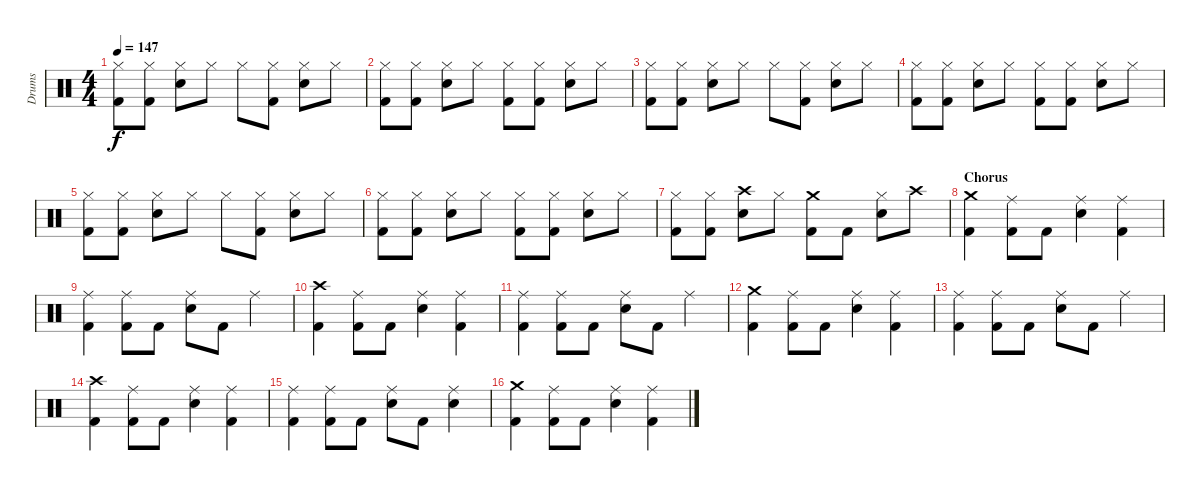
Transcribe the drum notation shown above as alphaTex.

\track ("Drums" "Drums") {instrument percussion}
\staff {score}
\articulation defaults
\ts (4 4)
\tempo 147
\clef neutral
\ks c
("Hi-Hat (closed)" "Kick (hit) 2").8{dy f} ("Hi-Hat (closed)" "Kick (hit) 2").8 ("Hi-Hat (closed)" "Snare (hit) 2").8 "Hi-Hat (closed)".8 "Hi-Hat (closed)".8 ("Hi-Hat (closed)" "Kick (hit) 2").8 ("Hi-Hat (closed)" "Snare (hit) 2").8 "Hi-Hat (closed)".8 |
("Hi-Hat (closed)" "Kick (hit) 2").8 ("Hi-Hat (closed)" "Kick (hit) 2").8 ("Hi-Hat (closed)" "Snare (hit) 2").8 "Hi-Hat (closed)".8 ("Hi-Hat (closed)" "Kick (hit) 2").8 ("Hi-Hat (closed)" "Kick (hit) 2").8 ("Hi-Hat (closed)" "Snare (hit) 2").8 "Hi-Hat (closed)".8 |
("Hi-Hat (closed)" "Kick (hit) 2").8 ("Hi-Hat (closed)" "Kick (hit) 2").8 ("Hi-Hat (closed)" "Snare (hit) 2").8 "Hi-Hat (closed)".8 "Hi-Hat (closed)".8 ("Hi-Hat (closed)" "Kick (hit) 2").8 ("Hi-Hat (closed)" "Snare (hit) 2").8 "Hi-Hat (closed)".8 |
("Hi-Hat (closed)" "Kick (hit) 2").8 ("Hi-Hat (closed)" "Kick (hit) 2").8 ("Hi-Hat (closed)" "Snare (hit) 2").8 "Hi-Hat (closed)".8 ("Hi-Hat (closed)" "Kick (hit) 2").8 ("Hi-Hat (closed)" "Kick (hit) 2").8 ("Hi-Hat (closed)" "Snare (hit) 2").8 "Hi-Hat (closed)".8 |
("Hi-Hat (closed)" "Kick (hit) 2").8 ("Hi-Hat (closed)" "Kick (hit) 2").8 ("Hi-Hat (closed)" "Snare (hit) 2").8 "Hi-Hat (closed)".8 "Hi-Hat (closed)".8 ("Hi-Hat (closed)" "Kick (hit) 2").8 ("Hi-Hat (closed)" "Snare (hit) 2").8 "Hi-Hat (closed)".8 |
("Hi-Hat (closed)" "Kick (hit) 2").8 ("Hi-Hat (closed)" "Kick (hit) 2").8 ("Hi-Hat (closed)" "Snare (hit) 2").8 "Hi-Hat (closed)".8 ("Hi-Hat (closed)" "Kick (hit) 2").8 ("Hi-Hat (closed)" "Kick (hit) 2").8 ("Hi-Hat (closed)" "Snare (hit) 2").8 "Hi-Hat (closed)".8 |
("Hi-Hat (closed)" "Kick (hit) 2").8 ("Hi-Hat (closed)" "Kick (hit) 2").8 ("Crash high (hit)" "Snare (hit) 2").8 "Hi-Hat (closed)".8 ("Crash medium (hit)" "Kick (hit) 2").8 "Kick (hit) 2".8 ("Hi-Hat (closed)" "Snare (hit) 2").8 "Crash high (hit)".8 |
\section ("" "Chorus")
("Crash medium (hit)" "Kick (hit) 2").4 ("Ride (middle)" "Kick (hit) 2").8 "Kick (hit) 2".8 ("Ride (middle)" "Snare (hit) 2").4 ("Ride (middle)" "Kick (hit) 2").4 |
("Ride (middle)" "Kick (hit) 2").4 ("Ride (middle)" "Kick (hit) 2").8 "Kick (hit) 2".8 ("Ride (middle)" "Snare (hit) 2").8 "Kick (hit) 2".8 "Ride (middle)".4 |
("Crash high (hit)" "Kick (hit) 2").4 ("Ride (middle)" "Kick (hit) 2").8 "Kick (hit) 2".8 ("Ride (middle)" "Snare (hit) 2").4 ("Ride (middle)" "Kick (hit) 2").4 |
("Ride (middle)" "Kick (hit) 2").4 ("Ride (middle)" "Kick (hit) 2").8 "Kick (hit) 2".8 ("Ride (middle)" "Snare (hit) 2").8 "Kick (hit) 2".8 "Ride (middle)".4 |
("Crash medium (hit)" "Kick (hit) 2").4 ("Ride (middle)" "Kick (hit) 2").8 "Kick (hit) 2".8 ("Ride (middle)" "Snare (hit) 2").4 ("Ride (middle)" "Kick (hit) 2").4 |
("Ride (middle)" "Kick (hit) 2").4 ("Ride (middle)" "Kick (hit) 2").8 "Kick (hit) 2".8 ("Ride (middle)" "Snare (hit) 2").8 "Kick (hit) 2".8 "Ride (middle)".4 |
("Crash high (hit)" "Kick (hit) 2").4 ("Ride (middle)" "Kick (hit) 2").8 "Kick (hit) 2".8 ("Ride (middle)" "Snare (hit) 2").4 ("Ride (middle)" "Kick (hit) 2").4 |
("Ride (middle)" "Kick (hit) 2").4 ("Ride (middle)" "Kick (hit) 2").8 "Kick (hit) 2".8 ("Ride (middle)" "Snare (hit) 2").8 "Kick (hit) 2".8 ("Ride (middle)" "Snare (hit) 2").4 |
("Crash medium (hit)" "Kick (hit) 2").4 ("Ride (middle)" "Kick (hit) 2").8 "Kick (hit) 2".8 ("Ride (middle)" "Snare (hit) 2").4 ("Ride (middle)" "Kick (hit) 2").4
